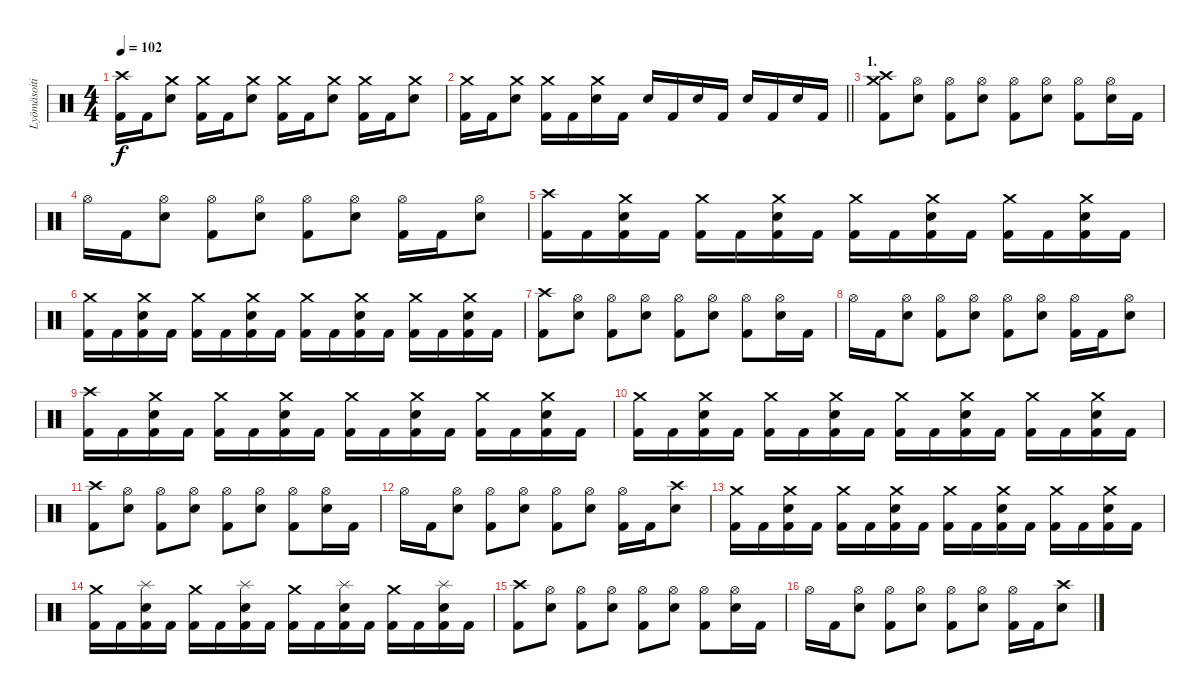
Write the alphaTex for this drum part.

\track ("Lyömäsoitin" "Lyömäsoiti") {instrument percussion}
\staff {score}
\articulation defaults
\ts (4 4)
\tempo 102
\clef neutral
\ks c
("Crash high (hit)" "Kick (hit) 2").16{dy f} "Kick (hit) 2".16 ("Crash medium (hit)" "Electric Snare (hit)").8 ("Crash medium (hit)" "Kick (hit) 2").16 "Kick (hit) 2".16 ("Crash medium (hit)" "Electric Snare (hit)").8 ("Crash medium (hit)" "Kick (hit) 2").16 "Kick (hit) 2".16 ("Crash medium (hit)" "Electric Snare (hit)").8 ("Crash medium (hit)" "Kick (hit) 2").16 "Kick (hit) 2".16 ("Crash medium (hit)" "Electric Snare (hit)").8 |
\barLineRight lightlight
("Crash medium (hit)" "Kick (hit) 2").16 "Kick (hit) 2".16 ("Crash medium (hit)" "Electric Snare (hit)").8 ("Crash medium (hit)" "Kick (hit) 2").16 "Kick (hit) 2".16 ("Crash medium (hit)" "Electric Snare (hit)").16 "Kick (hit) 2".16 "Electric Snare (hit)".16 "Kick (hit) 2".16 "Electric Snare (hit)".16 "Kick (hit) 2".16 "Electric Snare (hit)".16 "Kick (hit) 2".16 "Electric Snare (hit)".16 "Kick (hit) 2".16 |
\section ("" "1.")
("Crash medium (hit)" "Crash high (hit)" "Kick (hit) 2").8 ("Hi-Hat (open)" "Electric Snare (hit)").8 ("Hi-Hat (open)" "Kick (hit) 2").8 ("Hi-Hat (open)" "Electric Snare (hit)").8 ("Hi-Hat (open)" "Kick (hit) 2").8 ("Hi-Hat (open)" "Electric Snare (hit)").8 ("Hi-Hat (open)" "Kick (hit) 2").8 ("Hi-Hat (open)" "Electric Snare (hit)").16 "Kick (hit) 2".16 |
"Hi-Hat (open)".16 "Kick (hit) 2".16 ("Hi-Hat (open)" "Electric Snare (hit)").8 ("Hi-Hat (open)" "Kick (hit) 2").8 ("Hi-Hat (open)" "Electric Snare (hit)").8 ("Hi-Hat (open)" "Kick (hit) 2").8 ("Hi-Hat (open)" "Electric Snare (hit)").8 ("Hi-Hat (open)" "Kick (hit) 2").16 "Kick (hit) 2".16 ("Hi-Hat (open)" "Electric Snare (hit)").8 |
("Crash high (hit)" "Kick (hit) 2").16 "Kick (hit) 2".16 ("Crash medium (hit)" "Electric Snare (hit)" "Kick (hit) 2").16 "Kick (hit) 2".16 ("Crash medium (hit)" "Kick (hit) 2").16 "Kick (hit) 2".16 ("Crash medium (hit)" "Electric Snare (hit)" "Kick (hit) 2").16 "Kick (hit) 2".16 ("Crash medium (hit)" "Kick (hit) 2").16 "Kick (hit) 2".16 ("Crash medium (hit)" "Electric Snare (hit)" "Kick (hit) 2").16 "Kick (hit) 2".16 ("Crash medium (hit)" "Kick (hit) 2").16 "Kick (hit) 2".16 ("Crash medium (hit)" "Electric Snare (hit)" "Kick (hit) 2").16 "Kick (hit) 2".16 |
("Crash medium (hit)" "Kick (hit) 2").16 "Kick (hit) 2".16 ("Crash medium (hit)" "Electric Snare (hit)" "Kick (hit) 2").16 "Kick (hit) 2".16 ("Crash medium (hit)" "Kick (hit) 2").16 "Kick (hit) 2".16 ("Crash medium (hit)" "Electric Snare (hit)" "Kick (hit) 2").16 "Kick (hit) 2".16 ("Crash medium (hit)" "Kick (hit) 2").16 "Kick (hit) 2".16 ("Crash medium (hit)" "Electric Snare (hit)" "Kick (hit) 2").16 "Kick (hit) 2".16 ("Crash medium (hit)" "Kick (hit) 2").16 "Kick (hit) 2".16 ("Crash medium (hit)" "Electric Snare (hit)" "Kick (hit) 2").16 "Kick (hit) 2".16 |
("Crash high (hit)" "Kick (hit) 2").8 ("Hi-Hat (open)" "Electric Snare (hit)").8 ("Hi-Hat (open)" "Kick (hit) 2").8 ("Hi-Hat (open)" "Electric Snare (hit)").8 ("Hi-Hat (open)" "Kick (hit) 2").8 ("Hi-Hat (open)" "Electric Snare (hit)").8 ("Hi-Hat (open)" "Kick (hit) 2").8 ("Hi-Hat (open)" "Electric Snare (hit)").16 "Kick (hit) 2".16 |
"Hi-Hat (open)".16 "Kick (hit) 2".16 ("Hi-Hat (open)" "Electric Snare (hit)").8 ("Hi-Hat (open)" "Kick (hit) 2").8 ("Hi-Hat (open)" "Electric Snare (hit)").8 ("Hi-Hat (open)" "Kick (hit) 2").8 ("Hi-Hat (open)" "Electric Snare (hit)").8 ("Hi-Hat (open)" "Kick (hit) 2").16 "Kick (hit) 2".16 ("Hi-Hat (open)" "Electric Snare (hit)").8 |
("Crash high (hit)" "Kick (hit) 2").16 "Kick (hit) 2".16 ("Crash medium (hit)" "Electric Snare (hit)" "Kick (hit) 2").16 "Kick (hit) 2".16 ("Crash medium (hit)" "Kick (hit) 2").16 "Kick (hit) 2".16 ("Crash medium (hit)" "Electric Snare (hit)" "Kick (hit) 2").16 "Kick (hit) 2".16 ("Crash medium (hit)" "Kick (hit) 2").16 "Kick (hit) 2".16 ("Crash medium (hit)" "Electric Snare (hit)" "Kick (hit) 2").16 "Kick (hit) 2".16 ("Crash medium (hit)" "Kick (hit) 2").16 "Kick (hit) 2".16 ("Crash medium (hit)" "Electric Snare (hit)" "Kick (hit) 2").16 "Kick (hit) 2".16 |
("Crash medium (hit)" "Kick (hit) 2").16 "Kick (hit) 2".16 ("Crash medium (hit)" "Electric Snare (hit)" "Kick (hit) 2").16 "Kick (hit) 2".16 ("Crash medium (hit)" "Kick (hit) 2").16 "Kick (hit) 2".16 ("Crash medium (hit)" "Electric Snare (hit)" "Kick (hit) 2").16 "Kick (hit) 2".16 ("Crash medium (hit)" "Kick (hit) 2").16 "Kick (hit) 2".16 ("Crash medium (hit)" "Electric Snare (hit)" "Kick (hit) 2").16 "Kick (hit) 2".16 ("Crash medium (hit)" "Kick (hit) 2").16 "Kick (hit) 2".16 ("Crash medium (hit)" "Electric Snare (hit)" "Kick (hit) 2").16 "Kick (hit) 2".16 |
("Crash high (hit)" "Kick (hit) 2").8 ("Hi-Hat (open)" "Electric Snare (hit)").8 ("Hi-Hat (open)" "Kick (hit) 2").8 ("Hi-Hat (open)" "Electric Snare (hit)").8 ("Hi-Hat (open)" "Kick (hit) 2").8 ("Hi-Hat (open)" "Electric Snare (hit)").8 ("Hi-Hat (open)" "Kick (hit) 2").8 ("Hi-Hat (open)" "Electric Snare (hit)").16 "Kick (hit) 2".16 |
"Hi-Hat (open)".16 "Kick (hit) 2".16 ("Hi-Hat (open)" "Electric Snare (hit)").8 ("Hi-Hat (open)" "Kick (hit) 2").8 ("Hi-Hat (open)" "Electric Snare (hit)").8 ("Hi-Hat (open)" "Kick (hit) 2").8 ("Hi-Hat (open)" "Electric Snare (hit)").8 ("Hi-Hat (open)" "Kick (hit) 2").16 "Kick (hit) 2".16 ("Crash high (hit)" "Electric Snare (hit)").8 |
("Crash medium (hit)" "Kick (hit) 2").16 "Kick (hit) 2".16 ("Crash medium (hit)" "Electric Snare (hit)" "Kick (hit) 2").16 "Kick (hit) 2".16 ("Crash medium (hit)" "Kick (hit) 2").16 "Kick (hit) 2".16 ("Crash medium (hit)" "Electric Snare (hit)" "Kick (hit) 2").16 "Kick (hit) 2".16 ("Crash medium (hit)" "Kick (hit) 2").16 "Kick (hit) 2".16 ("Crash medium (hit)" "Electric Snare (hit)" "Kick (hit) 2").16 "Kick (hit) 2".16 ("Crash medium (hit)" "Kick (hit) 2").16 "Kick (hit) 2".16 ("Crash medium (hit)" "Electric Snare (hit)" "Kick (hit) 2").16 "Kick (hit) 2".16 |
("Crash medium (hit)" "Kick (hit) 2").16 "Kick (hit) 2".16 ("Splash (hit)" "Electric Snare (hit)" "Kick (hit) 2").16 "Kick (hit) 2".16 ("Crash medium (hit)" "Kick (hit) 2").16 "Kick (hit) 2".16 ("Splash (hit)" "Electric Snare (hit)" "Kick (hit) 2").16 "Kick (hit) 2".16 ("Crash medium (hit)" "Kick (hit) 2").16 "Kick (hit) 2".16 ("Splash (hit)" "Electric Snare (hit)" "Kick (hit) 2").16 "Kick (hit) 2".16 ("Crash medium (hit)" "Kick (hit) 2").16 "Kick (hit) 2".16 ("Splash (hit)" "Electric Snare (hit)" "Kick (hit) 2").16 "Kick (hit) 2".16 |
("Crash high (hit)" "Kick (hit) 2").8 ("Hi-Hat (open)" "Electric Snare (hit)").8 ("Hi-Hat (open)" "Kick (hit) 2").8 ("Hi-Hat (open)" "Electric Snare (hit)").8 ("Hi-Hat (open)" "Kick (hit) 2").8 ("Hi-Hat (open)" "Electric Snare (hit)").8 ("Hi-Hat (open)" "Kick (hit) 2").8 ("Hi-Hat (open)" "Electric Snare (hit)").16 "Kick (hit) 2".16 |
"Hi-Hat (open)".16 "Kick (hit) 2".16 ("Hi-Hat (open)" "Electric Snare (hit)").8 ("Hi-Hat (open)" "Kick (hit) 2").8 ("Hi-Hat (open)" "Electric Snare (hit)").8 ("Hi-Hat (open)" "Kick (hit) 2").8 ("Hi-Hat (open)" "Electric Snare (hit)").8 ("Hi-Hat (open)" "Kick (hit) 2").16 "Kick (hit) 2".16 ("Crash high (hit)" "Electric Snare (hit)").8
